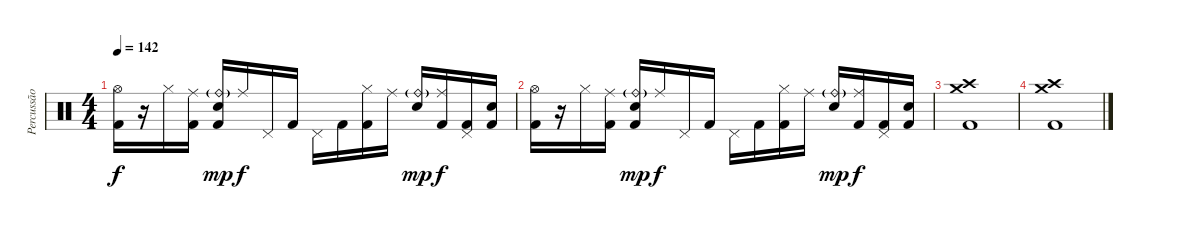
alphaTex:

\track ("Percussão" "Percussão") {instrument percussion}
\staff {score}
\articulation defaults
\ts (4 4)
\tempo 142
\clef neutral
\ks c
("Hi-Hat (open)" "Kick (hit) 2").16{dy f} r.16 "Hi-Hat (closed)".16 ("Ride (middle)" "Kick (hit) 2").16 ("Ride (bell)"{g} "Snare (hit) 2" "Kick (hit) 2").16{dy mp} "Ride (middle)".16{dy f} "Pedal Hi-Hat (hit)".16 "Kick (hit) 2".16 "Pedal Hi-Hat (hit)".16 "Kick (hit) 2".16 ("Hi-Hat (closed)" "Kick (hit) 2").16 "Ride (middle)".16 ("Ride (bell)"{g} "Snare (hit) 2").16{dy mp} ("Ride (middle)" "Kick (hit) 2").16{dy f} ("Pedal Hi-Hat (hit)" "Kick (hit) 2").16 ("Snare (hit) 2" "Kick (hit) 2").16 |
("Hi-Hat (open)" "Kick (hit) 2").16 r.16 "Hi-Hat (closed)".16 ("Ride (middle)" "Kick (hit) 2").16 ("Ride (bell)"{g} "Snare (hit) 2" "Kick (hit) 2").16{dy mp} "Ride (middle)".16{dy f} "Pedal Hi-Hat (hit)".16 "Kick (hit) 2".16 "Pedal Hi-Hat (hit)".16 "Kick (hit) 2".16 ("Hi-Hat (closed)" "Kick (hit) 2").16 "Ride (middle)".16 ("Ride (bell)"{g} "Snare (hit) 2").16{dy mp} ("Ride (middle)" "Kick (hit) 2").16{dy f} ("Pedal Hi-Hat (hit)" "Kick (hit) 2").16 ("Snare (hit) 2" "Kick (hit) 2").16 |
("Crash medium (hit)" "Crash high (hit)" "Kick (hit) 2").1 |
("Crash medium (hit)" "Crash high (hit)" "Kick (hit) 2").1
